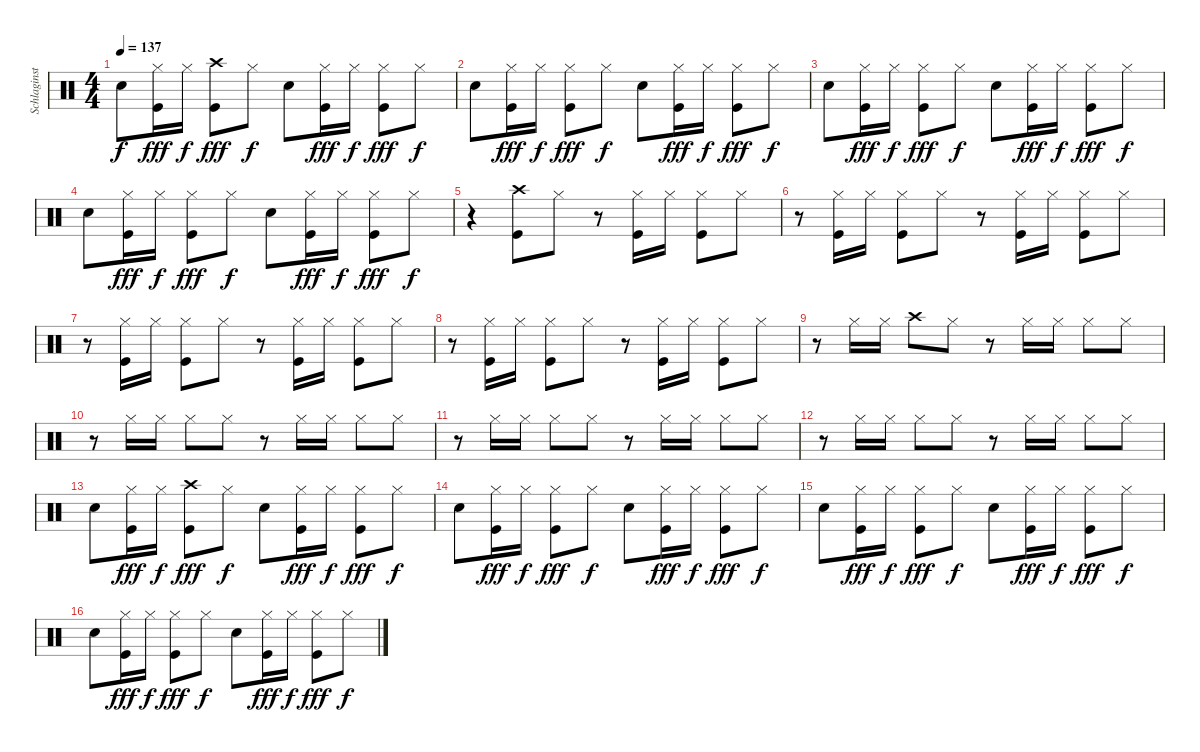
\track ("Schlaginstrument" "Schlaginst") {instrument percussion}
\staff {score}
\articulation defaults
\ts (4 4)
\tempo 137
\clef neutral
\ks c "Hand Clap (hit)".8{dy f}
("Hi-Hat (closed)" "Kick (hit)").16{dy fff} "Hi-Hat (closed)".16{dy f} ("Crash high (hit)" "Kick (hit)").8{dy fff} "Hi-Hat (closed)".8{dy f} "Hand Clap (hit)".8 ("Hi-Hat (closed)" "Kick (hit)").16{dy fff} "Hi-Hat (closed)".16{dy f} ("Hi-Hat (closed)" "Kick (hit)").8{dy fff} "Hi-Hat (closed)".8{dy f} |
"Hand Clap (hit)".8 ("Hi-Hat (closed)" "Kick (hit)").16{dy fff} "Hi-Hat (closed)".16{dy f} ("Hi-Hat (closed)" "Kick (hit)").8{dy fff} "Hi-Hat (closed)".8{dy f} "Hand Clap (hit)".8 ("Hi-Hat (closed)" "Kick (hit)").16{dy fff} "Hi-Hat (closed)".16{dy f} ("Hi-Hat (closed)" "Kick (hit)").8{dy fff} "Hi-Hat (closed)".8{dy f} |
"Hand Clap (hit)".8 ("Hi-Hat (closed)" "Kick (hit)").16{dy fff} "Hi-Hat (closed)".16{dy f} ("Hi-Hat (closed)" "Kick (hit)").8{dy fff} "Hi-Hat (closed)".8{dy f} "Hand Clap (hit)".8 ("Hi-Hat (closed)" "Kick (hit)").16{dy fff} "Hi-Hat (closed)".16{dy f} ("Hi-Hat (closed)" "Kick (hit)").8{dy fff} "Hi-Hat (closed)".8{dy f} |
"Hand Clap (hit)".8 ("Hi-Hat (closed)" "Kick (hit)").16{dy fff} "Hi-Hat (closed)".16{dy f} ("Hi-Hat (closed)" "Kick (hit)").8{dy fff} "Hi-Hat (closed)".8{dy f} "Hand Clap (hit)".8 ("Hi-Hat (closed)" "Kick (hit)").16{dy fff} "Hi-Hat (closed)".16{dy f} ("Hi-Hat (closed)" "Kick (hit)").8{dy fff} "Hi-Hat (closed)".8{dy f} |
r.4 ("Crash high (hit)" "Kick (hit)").8 "Hi-Hat (closed)".8 r.8 ("Hi-Hat (closed)" "Kick (hit)").16 "Hi-Hat (closed)".16 ("Hi-Hat (closed)" "Kick (hit)").8 "Hi-Hat (closed)".8 |
r.8 ("Hi-Hat (closed)" "Kick (hit)").16 "Hi-Hat (closed)".16 ("Hi-Hat (closed)" "Kick (hit)").8 "Hi-Hat (closed)".8 r.8 ("Hi-Hat (closed)" "Kick (hit)").16 "Hi-Hat (closed)".16 ("Hi-Hat (closed)" "Kick (hit)").8 "Hi-Hat (closed)".8 |
r.8 ("Hi-Hat (closed)" "Kick (hit)").16 "Hi-Hat (closed)".16 ("Hi-Hat (closed)" "Kick (hit)").8 "Hi-Hat (closed)".8 r.8 ("Hi-Hat (closed)" "Kick (hit)").16 "Hi-Hat (closed)".16 ("Hi-Hat (closed)" "Kick (hit)").8 "Hi-Hat (closed)".8 |
r.8 ("Hi-Hat (closed)" "Kick (hit)").16 "Hi-Hat (closed)".16 ("Hi-Hat (closed)" "Kick (hit)").8 "Hi-Hat (closed)".8 r.8 ("Hi-Hat (closed)" "Kick (hit)").16 "Hi-Hat (closed)".16 ("Hi-Hat (closed)" "Kick (hit)").8 "Hi-Hat (closed)".8 |
r.8 "Hi-Hat (closed)".16 "Hi-Hat (closed)".16 "Crash high (hit)".8 "Hi-Hat (closed)".8 r.8 "Hi-Hat (closed)".16 "Hi-Hat (closed)".16 "Hi-Hat (closed)".8 "Hi-Hat (closed)".8 |
r.8 "Hi-Hat (closed)".16 "Hi-Hat (closed)".16 "Hi-Hat (closed)".8 "Hi-Hat (closed)".8 r.8 "Hi-Hat (closed)".16 "Hi-Hat (closed)".16 "Hi-Hat (closed)".8 "Hi-Hat (closed)".8 |
r.8 "Hi-Hat (closed)".16 "Hi-Hat (closed)".16 "Hi-Hat (closed)".8 "Hi-Hat (closed)".8 r.8 "Hi-Hat (closed)".16 "Hi-Hat (closed)".16 "Hi-Hat (closed)".8 "Hi-Hat (closed)".8 |
r.8 "Hi-Hat (closed)".16 "Hi-Hat (closed)".16 "Hi-Hat (closed)".8 "Hi-Hat (closed)".8 r.8 "Hi-Hat (closed)".16 "Hi-Hat (closed)".16 "Hi-Hat (closed)".8 "Hi-Hat (closed)".8 |
"Hand Clap (hit)".8 ("Hi-Hat (closed)" "Kick (hit)").16{dy fff} "Hi-Hat (closed)".16{dy f} ("Crash high (hit)" "Kick (hit)").8{dy fff} "Hi-Hat (closed)".8{dy f} "Hand Clap (hit)".8 ("Hi-Hat (closed)" "Kick (hit)").16{dy fff} "Hi-Hat (closed)".16{dy f} ("Hi-Hat (closed)" "Kick (hit)").8{dy fff} "Hi-Hat (closed)".8{dy f} |
"Hand Clap (hit)".8 ("Hi-Hat (closed)" "Kick (hit)").16{dy fff} "Hi-Hat (closed)".16{dy f} ("Hi-Hat (closed)" "Kick (hit)").8{dy fff} "Hi-Hat (closed)".8{dy f} "Hand Clap (hit)".8 ("Hi-Hat (closed)" "Kick (hit)").16{dy fff} "Hi-Hat (closed)".16{dy f} ("Hi-Hat (closed)" "Kick (hit)").8{dy fff} "Hi-Hat (closed)".8{dy f} |
"Hand Clap (hit)".8 ("Hi-Hat (closed)" "Kick (hit)").16{dy fff} "Hi-Hat (closed)".16{dy f} ("Hi-Hat (closed)" "Kick (hit)").8{dy fff} "Hi-Hat (closed)".8{dy f} "Hand Clap (hit)".8 ("Hi-Hat (closed)" "Kick (hit)").16{dy fff} "Hi-Hat (closed)".16{dy f} ("Hi-Hat (closed)" "Kick (hit)").8{dy fff} "Hi-Hat (closed)".8{dy f} |
"Hand Clap (hit)".8 ("Hi-Hat (closed)" "Kick (hit)").16{dy fff} "Hi-Hat (closed)".16{dy f} ("Hi-Hat (closed)" "Kick (hit)").8{dy fff} "Hi-Hat (closed)".8{dy f} "Hand Clap (hit)".8 ("Hi-Hat (closed)" "Kick (hit)").16{dy fff} "Hi-Hat (closed)".16{dy f} ("Hi-Hat (closed)" "Kick (hit)").8{dy fff} "Hi-Hat (closed)".8{dy f}
